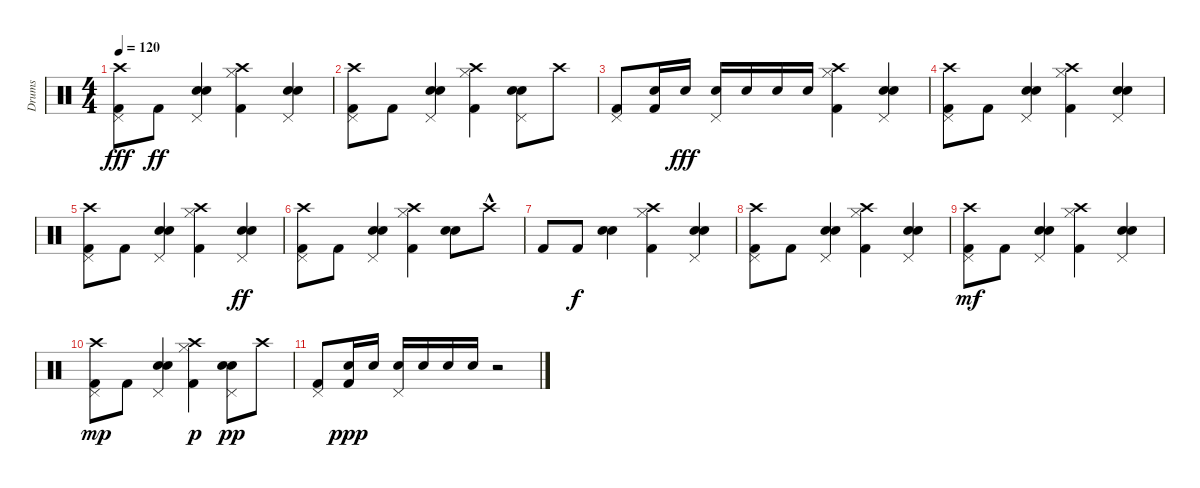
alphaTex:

\track ("Drums" "Drums") {instrument percussion}
\staff {score}
\articulation defaults
\ts (4 4)
\tempo 120
\clef neutral
\ks c
("Pedal Hi-Hat (hit)" "Kick (hit) 2" "Crash high (hit)").8{dy fff} "Kick (hit) 2".8{dy ff} ("Electric Snare (hit)" "Pedal Hi-Hat (hit)" "Snare (hit) 2").4 ("Hi-Hat (closed)" "Kick (hit) 2" "Crash high (hit)").4 ("Electric Snare (hit)" "Pedal Hi-Hat (hit)" "Snare (hit) 2").4 |
("Pedal Hi-Hat (hit)" "Kick (hit) 2" "Crash high (hit)").8 "Kick (hit) 2".8 ("Electric Snare (hit)" "Pedal Hi-Hat (hit)" "Snare (hit) 2").4 ("Hi-Hat (closed)" "Kick (hit) 2" "Crash high (hit)").4 ("Electric Snare (hit)" "Pedal Hi-Hat (hit)" "Snare (hit) 2").8 "Crash high (hit)".8 |
("Pedal Hi-Hat (hit)" "Kick (hit) 2").8 ("Kick (hit) 2" "Snare (hit) 2").16 "Snare (hit) 2".16{dy fff} ("Pedal Hi-Hat (hit)" "Electric Snare (hit)").16 "Electric Snare (hit)".16 "Electric Snare (hit)".16 "Electric Snare (hit)".16 ("Hi-Hat (closed)" "Kick (hit) 2" "Crash high (hit)").4 ("Electric Snare (hit)" "Pedal Hi-Hat (hit)" "Snare (hit) 2").4 |
("Pedal Hi-Hat (hit)" "Kick (hit) 2" "Crash high (hit)").8 "Kick (hit) 2".8 ("Electric Snare (hit)" "Pedal Hi-Hat (hit)" "Snare (hit) 2").4 ("Hi-Hat (closed)" "Kick (hit) 2" "Crash high (hit)").4 ("Electric Snare (hit)" "Pedal Hi-Hat (hit)" "Snare (hit) 2").4 |
("Pedal Hi-Hat (hit)" "Kick (hit) 2" "Crash high (hit)").8 "Kick (hit) 2".8 ("Electric Snare (hit)" "Pedal Hi-Hat (hit)" "Snare (hit) 2").4 ("Hi-Hat (closed)" "Kick (hit) 2" "Crash high (hit)").4 ("Electric Snare (hit)" "Pedal Hi-Hat (hit)" "Snare (hit) 2").4{dy ff} |
("Pedal Hi-Hat (hit)" "Kick (hit) 2" "Crash high (hit)").8 "Kick (hit) 2".8 ("Electric Snare (hit)" "Pedal Hi-Hat (hit)" "Snare (hit) 2").4 ("Hi-Hat (closed)" "Kick (hit) 2" "Crash high (hit)").4 ("Electric Snare (hit)" "Snare (hit) 2").8 "Crash high (hit)"{hac}.8 |
"Kick (hit) 2".8 "Kick (hit) 2".8{dy f} ("Electric Snare (hit)" "Snare (hit) 2").4 ("Hi-Hat (closed)" "Kick (hit) 2" "Crash high (hit)").4 ("Electric Snare (hit)" "Pedal Hi-Hat (hit)" "Snare (hit) 2").4 |
("Pedal Hi-Hat (hit)" "Kick (hit) 2" "Crash high (hit)").8 "Kick (hit) 2".8 ("Electric Snare (hit)" "Pedal Hi-Hat (hit)" "Snare (hit) 2").4 ("Hi-Hat (closed)" "Kick (hit) 2" "Crash high (hit)").4 ("Electric Snare (hit)" "Pedal Hi-Hat (hit)" "Snare (hit) 2").4 |
("Pedal Hi-Hat (hit)" "Kick (hit) 2" "Crash high (hit)").8{dy mf} "Kick (hit) 2".8 ("Electric Snare (hit)" "Pedal Hi-Hat (hit)" "Snare (hit) 2").4 ("Hi-Hat (closed)" "Kick (hit) 2" "Crash high (hit)").4 ("Electric Snare (hit)" "Pedal Hi-Hat (hit)" "Snare (hit) 2").4 |
("Pedal Hi-Hat (hit)" "Kick (hit) 2" "Crash high (hit)").8{dy mp} "Kick (hit) 2".8 ("Electric Snare (hit)" "Pedal Hi-Hat (hit)" "Snare (hit) 2").4 ("Hi-Hat (closed)" "Kick (hit) 2" "Crash high (hit)").4{dy p} ("Electric Snare (hit)" "Pedal Hi-Hat (hit)" "Snare (hit) 2").8{dy pp} "Crash high (hit)".8 |
("Pedal Hi-Hat (hit)" "Kick (hit) 2").8 ("Kick (hit) 2" "Snare (hit) 2").16{dy ppp} "Snare (hit) 2".16 ("Pedal Hi-Hat (hit)" "Electric Snare (hit)").16 "Electric Snare (hit)".16 "Electric Snare (hit)".16 "Electric Snare (hit)".16 r.2
